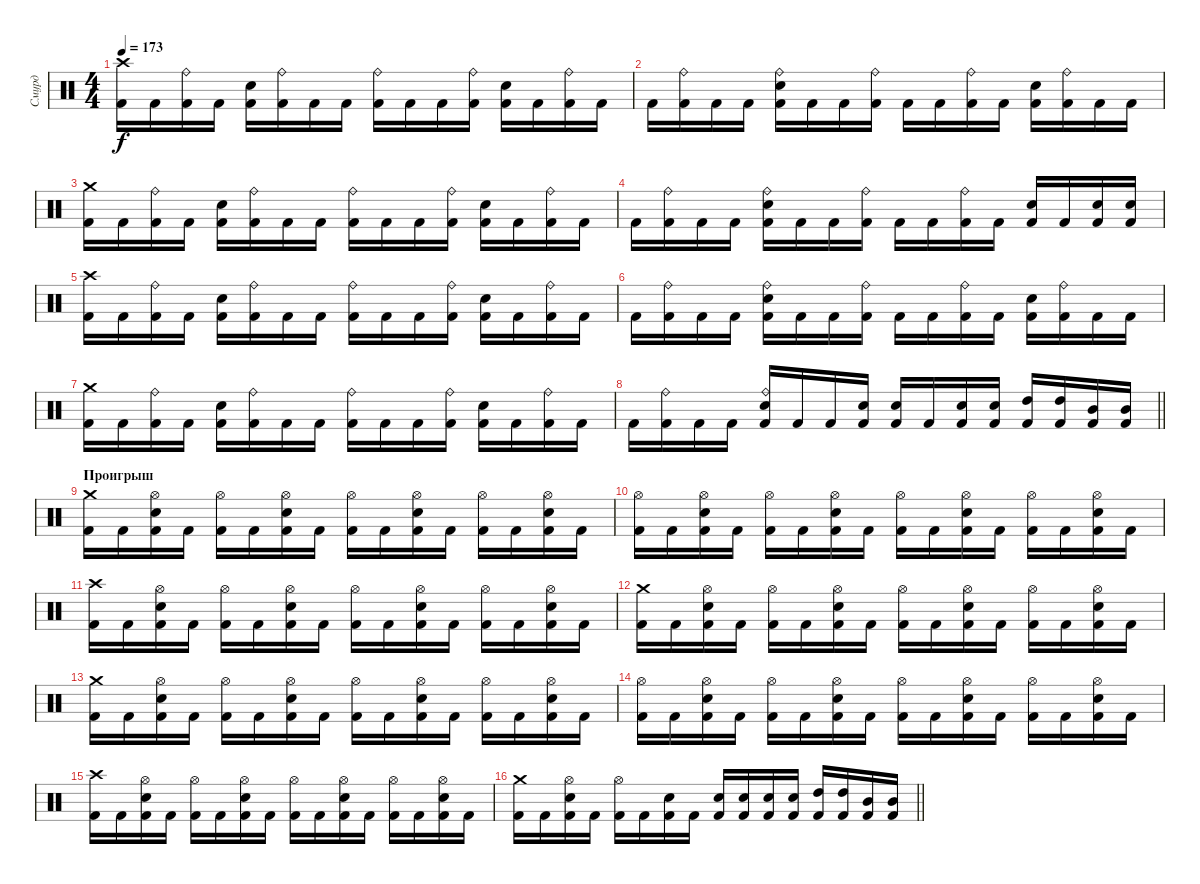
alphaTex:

\track ("Смурд" "Смурд") {instrument percussion}
\staff {score}
\articulation defaults
\ts (4 4)
\tempo 173
\clef neutral
\ks c
("Crash high (hit)" "Kick (hit) 2").16{dy f} "Kick (hit) 2".16 ("Ride (bell)" "Kick (hit) 2").16 "Kick (hit) 2".16 ("Electric Snare (hit)" "Kick (hit) 2").16 ("Ride (bell)" "Kick (hit) 2").16 "Kick (hit) 2".16 "Kick (hit) 2".16 ("Ride (bell)" "Kick (hit) 2").16 "Kick (hit) 2".16 "Kick (hit) 2".16 ("Ride (bell)" "Kick (hit) 2").16 ("Electric Snare (hit)" "Kick (hit) 2").16 "Kick (hit) 2".16 ("Ride (bell)" "Kick (hit) 2").16 "Kick (hit) 2".16 |
"Kick (hit) 2".16 ("Ride (bell)" "Kick (hit) 2").16 "Kick (hit) 2".16 "Kick (hit) 2".16 ("Ride (bell)" "Electric Snare (hit)" "Kick (hit) 2").16 "Kick (hit) 2".16 "Kick (hit) 2".16 ("Ride (bell)" "Kick (hit) 2").16 "Kick (hit) 2".16 "Kick (hit) 2".16 ("Ride (bell)" "Kick (hit) 2").16 "Kick (hit) 2".16 ("Electric Snare (hit)" "Kick (hit) 2").16 ("Ride (bell)" "Kick (hit) 2").16 "Kick (hit) 2".16 "Kick (hit) 2".16 |
("Crash medium (hit)" "Kick (hit) 2").16 "Kick (hit) 2".16 ("Ride (bell)" "Kick (hit) 2").16 "Kick (hit) 2".16 ("Electric Snare (hit)" "Kick (hit) 2").16 ("Ride (bell)" "Kick (hit) 2").16 "Kick (hit) 2".16 "Kick (hit) 2".16 ("Ride (bell)" "Kick (hit) 2").16 "Kick (hit) 2".16 "Kick (hit) 2".16 ("Ride (bell)" "Kick (hit) 2").16 ("Electric Snare (hit)" "Kick (hit) 2").16 "Kick (hit) 2".16 ("Ride (bell)" "Kick (hit) 2").16 "Kick (hit) 2".16 |
"Kick (hit) 2".16 ("Ride (bell)" "Kick (hit) 2").16 "Kick (hit) 2".16 "Kick (hit) 2".16 ("Ride (bell)" "Electric Snare (hit)" "Kick (hit) 2").16 "Kick (hit) 2".16 "Kick (hit) 2".16 ("Ride (bell)" "Kick (hit) 2").16 "Kick (hit) 2".16 "Kick (hit) 2".16 ("Ride (bell)" "Kick (hit) 2").16 "Kick (hit) 2".16 ("Electric Snare (hit)" "Kick (hit) 2").16 "Kick (hit) 2".16 ("Electric Snare (hit)" "Kick (hit) 2").16 ("Electric Snare (hit)" "Kick (hit) 2").16 |
("Crash high (hit)" "Kick (hit) 2").16 "Kick (hit) 2".16 ("Ride (bell)" "Kick (hit) 2").16 "Kick (hit) 2".16 ("Electric Snare (hit)" "Kick (hit) 2").16 ("Ride (bell)" "Kick (hit) 2").16 "Kick (hit) 2".16 "Kick (hit) 2".16 ("Ride (bell)" "Kick (hit) 2").16 "Kick (hit) 2".16 "Kick (hit) 2".16 ("Ride (bell)" "Kick (hit) 2").16 ("Electric Snare (hit)" "Kick (hit) 2").16 "Kick (hit) 2".16 ("Ride (bell)" "Kick (hit) 2").16 "Kick (hit) 2".16 |
"Kick (hit) 2".16 ("Ride (bell)" "Kick (hit) 2").16 "Kick (hit) 2".16 "Kick (hit) 2".16 ("Ride (bell)" "Electric Snare (hit)" "Kick (hit) 2").16 "Kick (hit) 2".16 "Kick (hit) 2".16 ("Ride (bell)" "Kick (hit) 2").16 "Kick (hit) 2".16 "Kick (hit) 2".16 ("Ride (bell)" "Kick (hit) 2").16 "Kick (hit) 2".16 ("Electric Snare (hit)" "Kick (hit) 2").16 ("Ride (bell)" "Kick (hit) 2").16 "Kick (hit) 2".16 "Kick (hit) 2".16 |
("Crash medium (hit)" "Kick (hit) 2").16 "Kick (hit) 2".16 ("Ride (bell)" "Kick (hit) 2").16 "Kick (hit) 2".16 ("Electric Snare (hit)" "Kick (hit) 2").16 ("Ride (bell)" "Kick (hit) 2").16 "Kick (hit) 2".16 "Kick (hit) 2".16 ("Ride (bell)" "Kick (hit) 2").16 "Kick (hit) 2".16 "Kick (hit) 2".16 ("Ride (bell)" "Kick (hit) 2").16 ("Electric Snare (hit)" "Kick (hit) 2").16 "Kick (hit) 2".16 ("Ride (bell)" "Kick (hit) 2").16 "Kick (hit) 2".16 |
\barLineRight lightlight "Kick (hit) 2".16
("Ride (bell)" "Kick (hit) 2").16 "Kick (hit) 2".16 "Kick (hit) 2".16 ("Ride (bell)" "Electric Snare (hit)" "Kick (hit) 2").16 "Kick (hit) 2".16 "Kick (hit) 2".16 ("Electric Snare (hit)" "Kick (hit) 2").16 ("Electric Snare (hit)" "Kick (hit) 2").16 "Kick (hit) 2".16 ("Electric Snare (hit)" "Kick (hit) 2").16 ("Electric Snare (hit)" "Kick (hit) 2").16 ("High Tom (hit)" "Kick (hit) 2").16 ("High Tom (hit)" "Kick (hit) 2").16 ("Mid Tom (hit)" "Kick (hit) 2").16 ("Mid Tom (hit)" "Kick (hit) 2").16 |
\section ("" "Проигрыш")
("Crash medium (hit)" "Kick (hit) 2").16 "Kick (hit) 2".16 ("Hi-Hat (open)" "Electric Snare (hit)" "Kick (hit) 2").16 "Kick (hit) 2".16 ("Hi-Hat (open)" "Kick (hit) 2").16 "Kick (hit) 2".16 ("Hi-Hat (open)" "Electric Snare (hit)" "Kick (hit) 2").16 "Kick (hit) 2".16 ("Hi-Hat (open)" "Kick (hit) 2").16 "Kick (hit) 2".16 ("Hi-Hat (open)" "Electric Snare (hit)" "Kick (hit) 2").16 "Kick (hit) 2".16 ("Hi-Hat (open)" "Kick (hit) 2").16 "Kick (hit) 2".16 ("Hi-Hat (open)" "Electric Snare (hit)" "Kick (hit) 2").16 "Kick (hit) 2".16 |
("Hi-Hat (open)" "Kick (hit) 2").16 "Kick (hit) 2".16 ("Hi-Hat (open)" "Electric Snare (hit)" "Kick (hit) 2").16 "Kick (hit) 2".16 ("Hi-Hat (open)" "Kick (hit) 2").16 "Kick (hit) 2".16 ("Hi-Hat (open)" "Electric Snare (hit)" "Kick (hit) 2").16 "Kick (hit) 2".16 ("Hi-Hat (open)" "Kick (hit) 2").16 "Kick (hit) 2".16 ("Hi-Hat (open)" "Electric Snare (hit)" "Kick (hit) 2").16 "Kick (hit) 2".16 ("Hi-Hat (open)" "Kick (hit) 2").16 "Kick (hit) 2".16 ("Hi-Hat (open)" "Electric Snare (hit)" "Kick (hit) 2").16 "Kick (hit) 2".16 |
("Crash high (hit)" "Kick (hit) 2").16 "Kick (hit) 2".16 ("Hi-Hat (open)" "Electric Snare (hit)" "Kick (hit) 2").16 "Kick (hit) 2".16 ("Hi-Hat (open)" "Kick (hit) 2").16 "Kick (hit) 2".16 ("Hi-Hat (open)" "Electric Snare (hit)" "Kick (hit) 2").16 "Kick (hit) 2".16 ("Hi-Hat (open)" "Kick (hit) 2").16 "Kick (hit) 2".16 ("Hi-Hat (open)" "Electric Snare (hit)" "Kick (hit) 2").16 "Kick (hit) 2".16 ("Hi-Hat (open)" "Kick (hit) 2").16 "Kick (hit) 2".16 ("Hi-Hat (open)" "Electric Snare (hit)" "Kick (hit) 2").16 "Kick (hit) 2".16 |
("Crash medium (hit)" "Kick (hit) 2").16 "Kick (hit) 2".16 ("Hi-Hat (open)" "Electric Snare (hit)" "Kick (hit) 2").16 "Kick (hit) 2".16 ("Hi-Hat (open)" "Kick (hit) 2").16 "Kick (hit) 2".16 ("Hi-Hat (open)" "Electric Snare (hit)" "Kick (hit) 2").16 "Kick (hit) 2".16 ("Hi-Hat (open)" "Kick (hit) 2").16 "Kick (hit) 2".16 ("Hi-Hat (open)" "Electric Snare (hit)" "Kick (hit) 2").16 "Kick (hit) 2".16 ("Hi-Hat (open)" "Kick (hit) 2").16 "Kick (hit) 2".16 ("Hi-Hat (open)" "Electric Snare (hit)" "Kick (hit) 2").16 "Kick (hit) 2".16 |
("Crash medium (hit)" "Kick (hit) 2").16 "Kick (hit) 2".16 ("Hi-Hat (open)" "Electric Snare (hit)" "Kick (hit) 2").16 "Kick (hit) 2".16 ("Hi-Hat (open)" "Kick (hit) 2").16 "Kick (hit) 2".16 ("Hi-Hat (open)" "Electric Snare (hit)" "Kick (hit) 2").16 "Kick (hit) 2".16 ("Hi-Hat (open)" "Kick (hit) 2").16 "Kick (hit) 2".16 ("Hi-Hat (open)" "Electric Snare (hit)" "Kick (hit) 2").16 "Kick (hit) 2".16 ("Hi-Hat (open)" "Kick (hit) 2").16 "Kick (hit) 2".16 ("Hi-Hat (open)" "Electric Snare (hit)" "Kick (hit) 2").16 "Kick (hit) 2".16 |
("Hi-Hat (open)" "Kick (hit) 2").16 "Kick (hit) 2".16 ("Hi-Hat (open)" "Electric Snare (hit)" "Kick (hit) 2").16 "Kick (hit) 2".16 ("Hi-Hat (open)" "Kick (hit) 2").16 "Kick (hit) 2".16 ("Hi-Hat (open)" "Electric Snare (hit)" "Kick (hit) 2").16 "Kick (hit) 2".16 ("Hi-Hat (open)" "Kick (hit) 2").16 "Kick (hit) 2".16 ("Hi-Hat (open)" "Electric Snare (hit)" "Kick (hit) 2").16 "Kick (hit) 2".16 ("Hi-Hat (open)" "Kick (hit) 2").16 "Kick (hit) 2".16 ("Hi-Hat (open)" "Electric Snare (hit)" "Kick (hit) 2").16 "Kick (hit) 2".16 |
("Crash high (hit)" "Kick (hit) 2").16 "Kick (hit) 2".16 ("Hi-Hat (open)" "Electric Snare (hit)" "Kick (hit) 2").16 "Kick (hit) 2".16 ("Hi-Hat (open)" "Kick (hit) 2").16 "Kick (hit) 2".16 ("Hi-Hat (open)" "Electric Snare (hit)" "Kick (hit) 2").16 "Kick (hit) 2".16 ("Hi-Hat (open)" "Kick (hit) 2").16 "Kick (hit) 2".16 ("Hi-Hat (open)" "Electric Snare (hit)" "Kick (hit) 2").16 "Kick (hit) 2".16 ("Hi-Hat (open)" "Kick (hit) 2").16 "Kick (hit) 2".16 ("Hi-Hat (open)" "Electric Snare (hit)" "Kick (hit) 2").16 "Kick (hit) 2".16 |
\barLineRight lightlight
("Crash medium (hit)" "Kick (hit) 2").16 "Kick (hit) 2".16 ("Hi-Hat (open)" "Electric Snare (hit)" "Kick (hit) 2").16 "Kick (hit) 2".16 ("Hi-Hat (open)" "Kick (hit) 2").16 "Kick (hit) 2".16 ("Electric Snare (hit)" "Kick (hit) 2").16 "Kick (hit) 2".16 ("Electric Snare (hit)" "Kick (hit) 2").16 ("Electric Snare (hit)" "Kick (hit) 2").16 ("Electric Snare (hit)" "Kick (hit) 2").16 ("Electric Snare (hit)" "Kick (hit) 2").16 ("High Tom (hit)" "Kick (hit) 2").16 ("High Tom (hit)" "Kick (hit) 2").16 ("Mid Tom (hit)" "Kick (hit) 2").16 ("Mid Tom (hit)" "Kick (hit) 2").16
